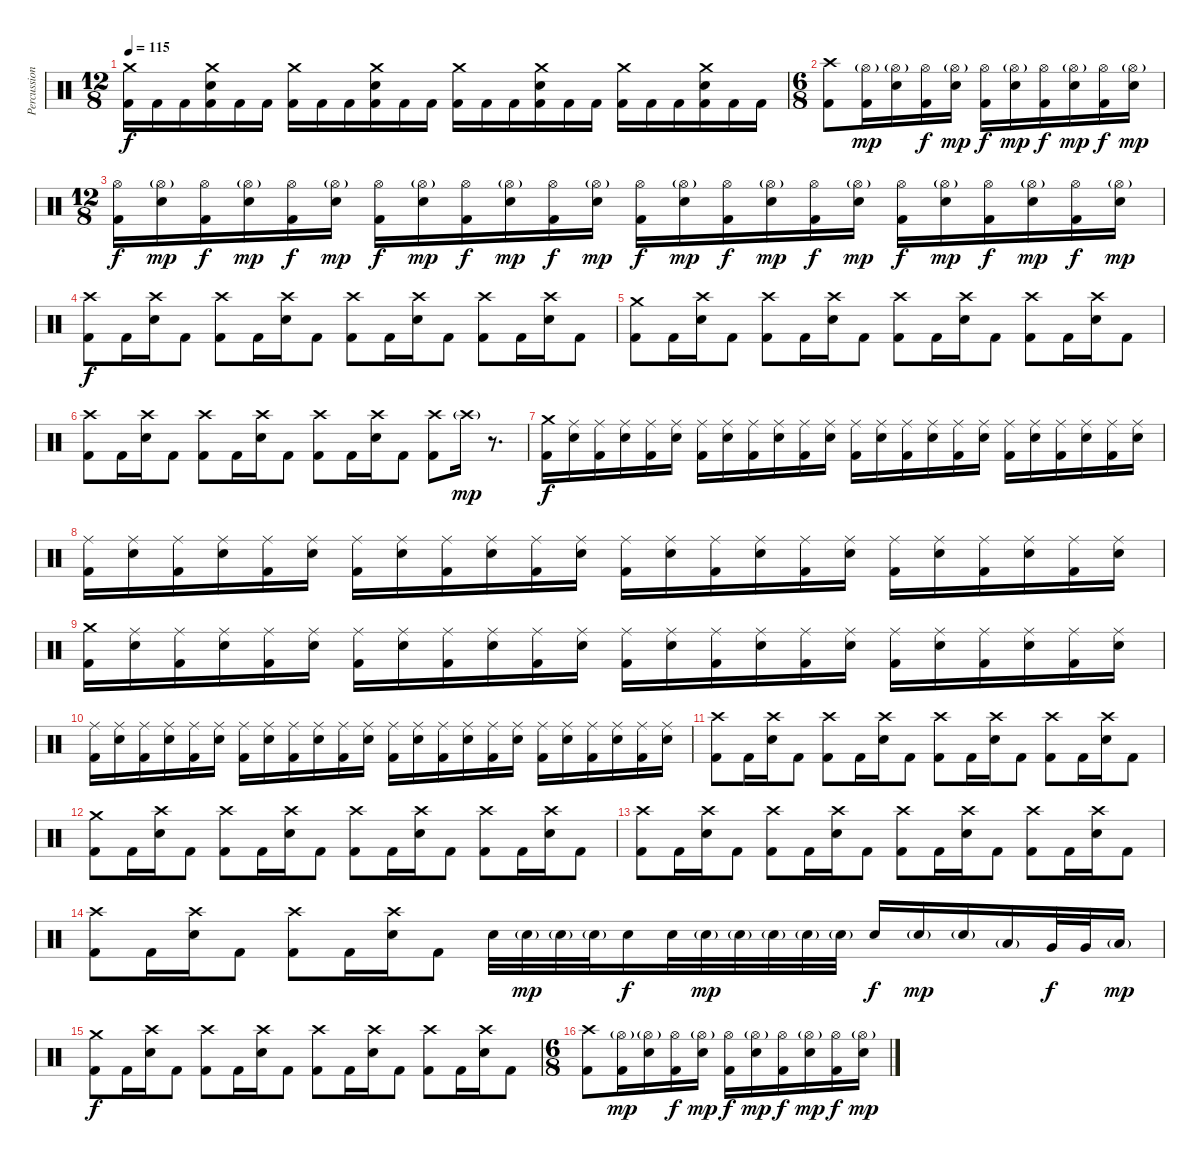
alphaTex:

\track ("Percussion" "Percussion") {instrument percussion}
\staff {score}
\articulation defaults
\ts (12 8)
\tempo 115
\clef neutral
\ks c
("Crash medium (hit)" "Kick (hit) 2").16{dy f} "Kick (hit) 2".16 "Kick (hit) 2".16 ("Crash medium (hit)" "Electric Snare (hit)" "Kick (hit) 2").16 "Kick (hit) 2".16 "Kick (hit) 2".16 ("Crash medium (hit)" "Kick (hit) 2").16 "Kick (hit) 2".16 "Kick (hit) 2".16 ("Crash medium (hit)" "Electric Snare (hit)" "Kick (hit) 2").16 "Kick (hit) 2".16 "Kick (hit) 2".16 ("Crash medium (hit)" "Kick (hit) 2").16 "Kick (hit) 2".16 "Kick (hit) 2".16 ("Crash medium (hit)" "Electric Snare (hit)" "Kick (hit) 2").16 "Kick (hit) 2".16 "Kick (hit) 2".16 ("Crash medium (hit)" "Kick (hit) 2").16 "Kick (hit) 2".16 "Kick (hit) 2".16 ("Crash medium (hit)" "Electric Snare (hit)" "Kick (hit) 2").16 "Kick (hit) 2".16 "Kick (hit) 2".16 |
\ts (6 8)
("Crash high (hit)" "Kick (hit) 2").8 ("Hi-Hat (open)"{g} "Kick (hit) 2").16{dy mp} ("Hi-Hat (open)"{g} "Electric Snare (hit)").16 ("Hi-Hat (open)" "Kick (hit) 2").16{dy f} ("Hi-Hat (open)"{g} "Electric Snare (hit)").16{dy mp} ("Hi-Hat (open)" "Kick (hit) 2").16{dy f} ("Hi-Hat (open)"{g} "Electric Snare (hit)").16{dy mp} ("Hi-Hat (open)" "Kick (hit) 2").16{dy f} ("Hi-Hat (open)"{g} "Electric Snare (hit)").16{dy mp} ("Hi-Hat (open)" "Kick (hit) 2").16{dy f} ("Hi-Hat (open)"{g} "Electric Snare (hit)").16{dy mp} |
\ts (12 8)
("Hi-Hat (open)" "Kick (hit) 2").16{dy f} ("Hi-Hat (open)"{g} "Electric Snare (hit)").16{dy mp} ("Hi-Hat (open)" "Kick (hit) 2").16{dy f} ("Hi-Hat (open)"{g} "Electric Snare (hit)").16{dy mp} ("Hi-Hat (open)" "Kick (hit) 2").16{dy f} ("Hi-Hat (open)"{g} "Electric Snare (hit)").16{dy mp} ("Hi-Hat (open)" "Kick (hit) 2").16{dy f} ("Hi-Hat (open)"{g} "Electric Snare (hit)").16{dy mp} ("Hi-Hat (open)" "Kick (hit) 2").16{dy f} ("Hi-Hat (open)"{g} "Electric Snare (hit)").16{dy mp} ("Hi-Hat (open)" "Kick (hit) 2").16{dy f} ("Hi-Hat (open)"{g} "Electric Snare (hit)").16{dy mp} ("Hi-Hat (open)" "Kick (hit) 2").16{dy f} ("Hi-Hat (open)"{g} "Electric Snare (hit)").16{dy mp} ("Hi-Hat (open)" "Kick (hit) 2").16{dy f} ("Hi-Hat (open)"{g} "Electric Snare (hit)").16{dy mp} ("Hi-Hat (open)" "Kick (hit) 2").16{dy f} ("Hi-Hat (open)"{g} "Electric Snare (hit)").16{dy mp} ("Hi-Hat (open)" "Kick (hit) 2").16{dy f} ("Hi-Hat (open)"{g} "Electric Snare (hit)").16{dy mp} ("Hi-Hat (open)" "Kick (hit) 2").16{dy f} ("Hi-Hat (open)"{g} "Electric Snare (hit)").16{dy mp} ("Hi-Hat (open)" "Kick (hit) 2").16{dy f} ("Hi-Hat (open)"{g} "Electric Snare (hit)").16{dy mp} |
("Crash high (hit)" "Kick (hit) 2").8{dy f} "Kick (hit) 2".16 ("Crash high (hit)" "Electric Snare (hit)").16 "Kick (hit) 2".8 ("Crash high (hit)" "Kick (hit) 2").8 "Kick (hit) 2".16 ("Crash high (hit)" "Electric Snare (hit)").16 "Kick (hit) 2".8 ("Crash high (hit)" "Kick (hit) 2").8 "Kick (hit) 2".16 ("Crash high (hit)" "Electric Snare (hit)").16 "Kick (hit) 2".8 ("Crash high (hit)" "Kick (hit) 2").8 "Kick (hit) 2".16 ("Crash high (hit)" "Electric Snare (hit)").16 "Kick (hit) 2".8 |
("Crash medium (hit)" "Kick (hit) 2").8 "Kick (hit) 2".16 ("Crash high (hit)" "Electric Snare (hit)").16 "Kick (hit) 2".8 ("Crash high (hit)" "Kick (hit) 2").8 "Kick (hit) 2".16 ("Crash high (hit)" "Electric Snare (hit)").16 "Kick (hit) 2".8 ("Crash high (hit)" "Kick (hit) 2").8 "Kick (hit) 2".16 ("Crash high (hit)" "Electric Snare (hit)").16 "Kick (hit) 2".8 ("Crash high (hit)" "Kick (hit) 2").8 "Kick (hit) 2".16 ("Crash high (hit)" "Electric Snare (hit)").16 "Kick (hit) 2".8 |
("Crash high (hit)" "Kick (hit) 2").8 "Kick (hit) 2".16 ("Crash high (hit)" "Electric Snare (hit)").16 "Kick (hit) 2".8 ("Crash high (hit)" "Kick (hit) 2").8 "Kick (hit) 2".16 ("Crash high (hit)" "Electric Snare (hit)").16 "Kick (hit) 2".8 ("Crash high (hit)" "Kick (hit) 2").8 "Kick (hit) 2".16 ("Crash high (hit)" "Electric Snare (hit)").16 "Kick (hit) 2".8 ("Crash high (hit)" "Kick (hit) 2").8 "Crash high (hit)"{g}.16{dy mp} r.8{d} |
("Crash medium (hit)" "Kick (hit) 2").16{dy f} ("Ride (middle)" "Electric Snare (hit)").16 ("Ride (middle)" "Kick (hit) 2").16 ("Ride (middle)" "Electric Snare (hit)").16 ("Ride (middle)" "Kick (hit) 2").16 ("Ride (middle)" "Electric Snare (hit)").16 ("Ride (middle)" "Kick (hit) 2").16 ("Ride (middle)" "Electric Snare (hit)").16 ("Ride (middle)" "Kick (hit) 2").16 ("Ride (middle)" "Electric Snare (hit)").16 ("Ride (middle)" "Kick (hit) 2").16 ("Ride (middle)" "Electric Snare (hit)").16 ("Ride (middle)" "Kick (hit) 2").16 ("Ride (middle)" "Electric Snare (hit)").16 ("Ride (middle)" "Kick (hit) 2").16 ("Ride (middle)" "Electric Snare (hit)").16 ("Ride (middle)" "Kick (hit) 2").16 ("Ride (middle)" "Electric Snare (hit)").16 ("Ride (middle)" "Kick (hit) 2").16 ("Ride (middle)" "Electric Snare (hit)").16 ("Ride (middle)" "Kick (hit) 2").16 ("Ride (middle)" "Electric Snare (hit)").16 ("Ride (middle)" "Kick (hit) 2").16 ("Ride (middle)" "Electric Snare (hit)").16 |
("Ride (middle)" "Kick (hit) 2").16 ("Ride (middle)" "Electric Snare (hit)").16 ("Ride (middle)" "Kick (hit) 2").16 ("Ride (middle)" "Electric Snare (hit)").16 ("Ride (middle)" "Kick (hit) 2").16 ("Ride (middle)" "Electric Snare (hit)").16 ("Ride (middle)" "Kick (hit) 2").16 ("Ride (middle)" "Electric Snare (hit)").16 ("Ride (middle)" "Kick (hit) 2").16 ("Ride (middle)" "Electric Snare (hit)").16 ("Ride (middle)" "Kick (hit) 2").16 ("Ride (middle)" "Electric Snare (hit)").16 ("Ride (middle)" "Kick (hit) 2").16 ("Ride (middle)" "Electric Snare (hit)").16 ("Ride (middle)" "Kick (hit) 2").16 ("Ride (middle)" "Electric Snare (hit)").16 ("Ride (middle)" "Kick (hit) 2").16 ("Ride (middle)" "Electric Snare (hit)").16 ("Ride (middle)" "Kick (hit) 2").16 ("Ride (middle)" "Electric Snare (hit)").16 ("Ride (middle)" "Kick (hit) 2").16 ("Ride (middle)" "Electric Snare (hit)").16 ("Ride (middle)" "Kick (hit) 2").16 ("Ride (middle)" "Electric Snare (hit)").16 |
("Crash medium (hit)" "Kick (hit) 2").16 ("Ride (middle)" "Electric Snare (hit)").16 ("Ride (middle)" "Kick (hit) 2").16 ("Ride (middle)" "Electric Snare (hit)").16 ("Ride (middle)" "Kick (hit) 2").16 ("Ride (middle)" "Electric Snare (hit)").16 ("Ride (middle)" "Kick (hit) 2").16 ("Ride (middle)" "Electric Snare (hit)").16 ("Ride (middle)" "Kick (hit) 2").16 ("Ride (middle)" "Electric Snare (hit)").16 ("Ride (middle)" "Kick (hit) 2").16 ("Ride (middle)" "Electric Snare (hit)").16 ("Ride (middle)" "Kick (hit) 2").16 ("Ride (middle)" "Electric Snare (hit)").16 ("Ride (middle)" "Kick (hit) 2").16 ("Ride (middle)" "Electric Snare (hit)").16 ("Ride (middle)" "Kick (hit) 2").16 ("Ride (middle)" "Electric Snare (hit)").16 ("Ride (middle)" "Kick (hit) 2").16 ("Ride (middle)" "Electric Snare (hit)").16 ("Ride (middle)" "Kick (hit) 2").16 ("Ride (middle)" "Electric Snare (hit)").16 ("Ride (middle)" "Kick (hit) 2").16 ("Ride (middle)" "Electric Snare (hit)").16 |
("Ride (middle)" "Kick (hit) 2").16 ("Ride (middle)" "Electric Snare (hit)").16 ("Ride (middle)" "Kick (hit) 2").16 ("Ride (middle)" "Electric Snare (hit)").16 ("Ride (middle)" "Kick (hit) 2").16 ("Ride (middle)" "Electric Snare (hit)").16 ("Ride (middle)" "Kick (hit) 2").16 ("Ride (middle)" "Electric Snare (hit)").16 ("Ride (middle)" "Kick (hit) 2").16 ("Ride (middle)" "Electric Snare (hit)").16 ("Ride (middle)" "Kick (hit) 2").16 ("Ride (middle)" "Electric Snare (hit)").16 ("Ride (middle)" "Kick (hit) 2").16 ("Ride (middle)" "Electric Snare (hit)").16 ("Ride (middle)" "Kick (hit) 2").16 ("Ride (middle)" "Electric Snare (hit)").16 ("Ride (middle)" "Kick (hit) 2").16 ("Ride (middle)" "Electric Snare (hit)").16 ("Ride (middle)" "Kick (hit) 2").16 ("Ride (middle)" "Electric Snare (hit)").16 ("Ride (middle)" "Kick (hit) 2").16 ("Ride (middle)" "Electric Snare (hit)").16 ("Ride (middle)" "Kick (hit) 2").16 ("Ride (middle)" "Electric Snare (hit)").16 |
("Crash high (hit)" "Kick (hit) 2").8 "Kick (hit) 2".16 ("Crash high (hit)" "Electric Snare (hit)").16 "Kick (hit) 2".8 ("Crash high (hit)" "Kick (hit) 2").8 "Kick (hit) 2".16 ("Crash high (hit)" "Electric Snare (hit)").16 "Kick (hit) 2".8 ("Crash high (hit)" "Kick (hit) 2").8 "Kick (hit) 2".16 ("Crash high (hit)" "Electric Snare (hit)").16 "Kick (hit) 2".8 ("Crash high (hit)" "Kick (hit) 2").8 "Kick (hit) 2".16 ("Crash high (hit)" "Electric Snare (hit)").16 "Kick (hit) 2".8 |
("Crash medium (hit)" "Kick (hit) 2").8 "Kick (hit) 2".16 ("Crash high (hit)" "Electric Snare (hit)").16 "Kick (hit) 2".8 ("Crash high (hit)" "Kick (hit) 2").8 "Kick (hit) 2".16 ("Crash high (hit)" "Electric Snare (hit)").16 "Kick (hit) 2".8 ("Crash high (hit)" "Kick (hit) 2").8 "Kick (hit) 2".16 ("Crash high (hit)" "Electric Snare (hit)").16 "Kick (hit) 2".8 ("Crash high (hit)" "Kick (hit) 2").8 "Kick (hit) 2".16 ("Crash high (hit)" "Electric Snare (hit)").16 "Kick (hit) 2".8 |
("Crash high (hit)" "Kick (hit) 2").8 "Kick (hit) 2".16 ("Crash high (hit)" "Electric Snare (hit)").16 "Kick (hit) 2".8 ("Crash high (hit)" "Kick (hit) 2").8 "Kick (hit) 2".16 ("Crash high (hit)" "Electric Snare (hit)").16 "Kick (hit) 2".8 ("Crash high (hit)" "Kick (hit) 2").8 "Kick (hit) 2".16 ("Crash high (hit)" "Electric Snare (hit)").16 "Kick (hit) 2".8 ("Crash high (hit)" "Kick (hit) 2").8 "Kick (hit) 2".16 ("Crash high (hit)" "Electric Snare (hit)").16 "Kick (hit) 2".8 |
("Crash high (hit)" "Kick (hit) 2").8 "Kick (hit) 2".16 ("Crash high (hit)" "Electric Snare (hit)").16 "Kick (hit) 2".8 ("Crash high (hit)" "Kick (hit) 2").8 "Kick (hit) 2".16 ("Crash high (hit)" "Electric Snare (hit)").16 "Kick (hit) 2".8 "Electric Snare (hit)".32 "Electric Snare (hit)"{g}.32{dy mp} "Electric Snare (hit)"{g}.32 "Electric Snare (hit)"{g}.32 "Electric Snare (hit)".16{dy f} "Electric Snare (hit)".32 "Electric Snare (hit)"{g}.32{dy mp} "Electric Snare (hit)"{g}.32 "Electric Snare (hit)"{g}.32 "Electric Snare (hit)"{g}.32 "Electric Snare (hit)"{g}.32 "Electric Snare (hit)".16{dy f} "Electric Snare (hit)"{g}.16{dy mp} "Electric Snare (hit)"{g}.16 "Low Tom (hit)"{g}.16 "Very Low Tom (hit)".32{dy f} "Very Low Tom (hit)".32 "Low Floor Tom (hit)"{g}.16{dy mp} |
("Crash medium (hit)" "Kick (hit) 2").8{dy f} "Kick (hit) 2".16 ("Crash high (hit)" "Electric Snare (hit)").16 "Kick (hit) 2".8 ("Crash high (hit)" "Kick (hit) 2").8 "Kick (hit) 2".16 ("Crash high (hit)" "Electric Snare (hit)").16 "Kick (hit) 2".8 ("Crash high (hit)" "Kick (hit) 2").8 "Kick (hit) 2".16 ("Crash high (hit)" "Electric Snare (hit)").16 "Kick (hit) 2".8 ("Crash high (hit)" "Kick (hit) 2").8 "Kick (hit) 2".16 ("Crash high (hit)" "Electric Snare (hit)").16 "Kick (hit) 2".8 |
\ts (6 8)
("Crash high (hit)" "Kick (hit) 2").8 ("Hi-Hat (open)"{g} "Kick (hit) 2").16{dy mp} ("Hi-Hat (open)"{g} "Electric Snare (hit)").16 ("Hi-Hat (open)" "Kick (hit) 2").16{dy f} ("Hi-Hat (open)"{g} "Electric Snare (hit)").16{dy mp} ("Hi-Hat (open)" "Kick (hit) 2").16{dy f} ("Hi-Hat (open)"{g} "Electric Snare (hit)").16{dy mp} ("Hi-Hat (open)" "Kick (hit) 2").16{dy f} ("Hi-Hat (open)"{g} "Electric Snare (hit)").16{dy mp} ("Hi-Hat (open)" "Kick (hit) 2").16{dy f} ("Hi-Hat (open)"{g} "Electric Snare (hit)").16{dy mp}
